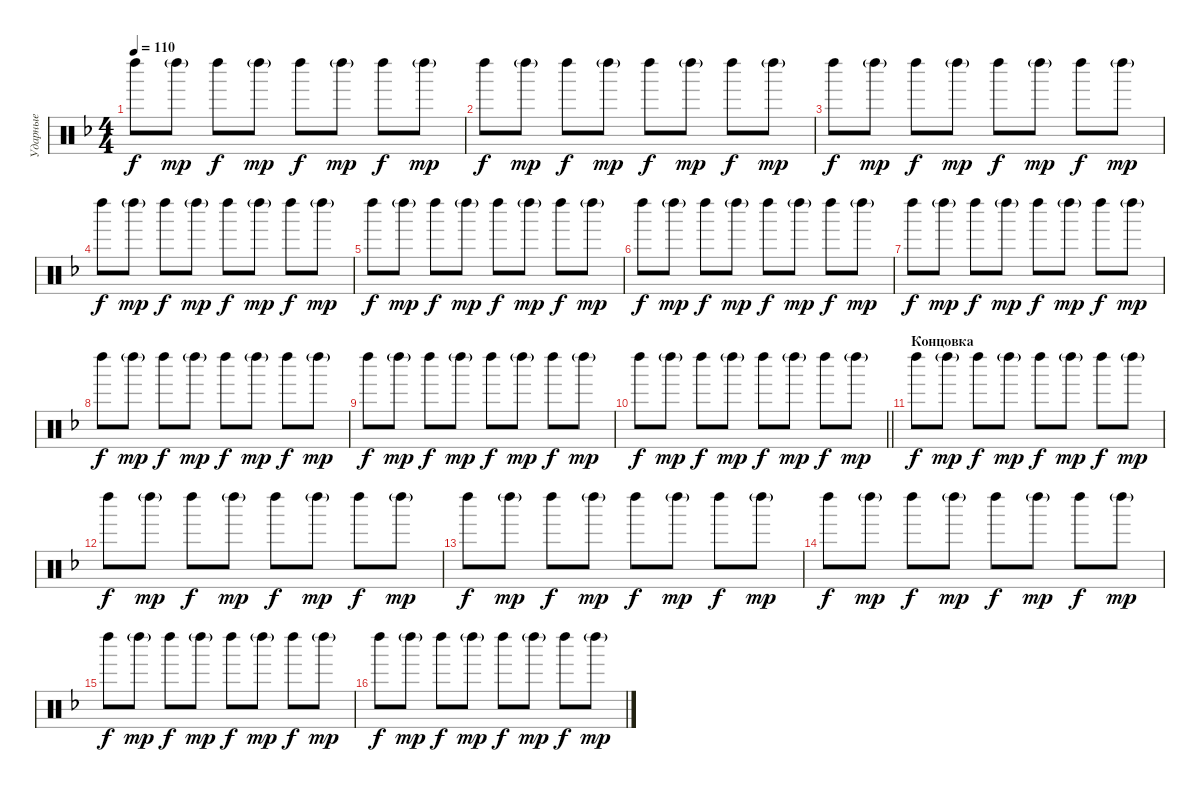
\track ("Ударные" "Ударные") {instrument percussion}
\staff {score}
\articulation defaults
\ts (4 4)
\tempo 110
\clef neutral
\ks dminor "Left Maraca (hit)".8{dy f} "Left Maraca (hit)"{g}.8{dy mp} "Left Maraca (hit)".8{dy f} "Left Maraca (hit)"{g}.8{dy mp} "Left Maraca (hit)".8{dy f} "Left Maraca (hit)"{g}.8{dy mp} "Left Maraca (hit)".8{dy f} "Left Maraca (hit)"{g}.8{dy mp}
|
"Left Maraca (hit)".8{dy f} "Left Maraca (hit)"{g}.8{dy mp} "Left Maraca (hit)".8{dy f} "Left Maraca (hit)"{g}.8{dy mp} "Left Maraca (hit)".8{dy f} "Left Maraca (hit)"{g}.8{dy mp} "Left Maraca (hit)".8{dy f} "Left Maraca (hit)"{g}.8{dy mp} |
"Left Maraca (hit)".8{dy f} "Left Maraca (hit)"{g}.8{dy mp} "Left Maraca (hit)".8{dy f} "Left Maraca (hit)"{g}.8{dy mp} "Left Maraca (hit)".8{dy f} "Left Maraca (hit)"{g}.8{dy mp} "Left Maraca (hit)".8{dy f} "Left Maraca (hit)"{g}.8{dy mp} |
"Left Maraca (hit)".8{dy f} "Left Maraca (hit)"{g}.8{dy mp} "Left Maraca (hit)".8{dy f} "Left Maraca (hit)"{g}.8{dy mp} "Left Maraca (hit)".8{dy f} "Left Maraca (hit)"{g}.8{dy mp} "Left Maraca (hit)".8{dy f} "Left Maraca (hit)"{g}.8{dy mp} |
"Left Maraca (hit)".8{dy f} "Left Maraca (hit)"{g}.8{dy mp} "Left Maraca (hit)".8{dy f} "Left Maraca (hit)"{g}.8{dy mp} "Left Maraca (hit)".8{dy f} "Left Maraca (hit)"{g}.8{dy mp} "Left Maraca (hit)".8{dy f} "Left Maraca (hit)"{g}.8{dy mp} |
"Left Maraca (hit)".8{dy f} "Left Maraca (hit)"{g}.8{dy mp} "Left Maraca (hit)".8{dy f} "Left Maraca (hit)"{g}.8{dy mp} "Left Maraca (hit)".8{dy f} "Left Maraca (hit)"{g}.8{dy mp} "Left Maraca (hit)".8{dy f} "Left Maraca (hit)"{g}.8{dy mp} |
"Left Maraca (hit)".8{dy f} "Left Maraca (hit)"{g}.8{dy mp} "Left Maraca (hit)".8{dy f} "Left Maraca (hit)"{g}.8{dy mp} "Left Maraca (hit)".8{dy f} "Left Maraca (hit)"{g}.8{dy mp} "Left Maraca (hit)".8{dy f} "Left Maraca (hit)"{g}.8{dy mp} |
"Left Maraca (hit)".8{dy f} "Left Maraca (hit)"{g}.8{dy mp} "Left Maraca (hit)".8{dy f} "Left Maraca (hit)"{g}.8{dy mp} "Left Maraca (hit)".8{dy f} "Left Maraca (hit)"{g}.8{dy mp} "Left Maraca (hit)".8{dy f} "Left Maraca (hit)"{g}.8{dy mp} |
"Left Maraca (hit)".8{dy f} "Left Maraca (hit)"{g}.8{dy mp} "Left Maraca (hit)".8{dy f} "Left Maraca (hit)"{g}.8{dy mp} "Left Maraca (hit)".8{dy f} "Left Maraca (hit)"{g}.8{dy mp} "Left Maraca (hit)".8{dy f} "Left Maraca (hit)"{g}.8{dy mp} |
\barLineRight lightlight "Left Maraca (hit)".8{dy f} "Left Maraca (hit)"{g}.8{dy mp} "Left Maraca (hit)".8{dy f} "Left Maraca (hit)"{g}.8{dy mp} "Left Maraca (hit)".8{dy f} "Left Maraca (hit)"{g}.8{dy mp} "Left Maraca (hit)".8{dy f} "Left Maraca (hit)"{g}.8{dy mp}
|
\section ("" "Концовка")
"Left Maraca (hit)".8{dy f} "Left Maraca (hit)"{g}.8{dy mp} "Left Maraca (hit)".8{dy f} "Left Maraca (hit)"{g}.8{dy mp} "Left Maraca (hit)".8{dy f} "Left Maraca (hit)"{g}.8{dy mp} "Left Maraca (hit)".8{dy f} "Left Maraca (hit)"{g}.8{dy mp} |
"Left Maraca (hit)".8{dy f} "Left Maraca (hit)"{g}.8{dy mp} "Left Maraca (hit)".8{dy f} "Left Maraca (hit)"{g}.8{dy mp} "Left Maraca (hit)".8{dy f} "Left Maraca (hit)"{g}.8{dy mp} "Left Maraca (hit)".8{dy f} "Left Maraca (hit)"{g}.8{dy mp} |
"Left Maraca (hit)".8{dy f} "Left Maraca (hit)"{g}.8{dy mp} "Left Maraca (hit)".8{dy f} "Left Maraca (hit)"{g}.8{dy mp} "Left Maraca (hit)".8{dy f} "Left Maraca (hit)"{g}.8{dy mp} "Left Maraca (hit)".8{dy f} "Left Maraca (hit)"{g}.8{dy mp} |
"Left Maraca (hit)".8{dy f} "Left Maraca (hit)"{g}.8{dy mp} "Left Maraca (hit)".8{dy f} "Left Maraca (hit)"{g}.8{dy mp} "Left Maraca (hit)".8{dy f} "Left Maraca (hit)"{g}.8{dy mp} "Left Maraca (hit)".8{dy f} "Left Maraca (hit)"{g}.8{dy mp} |
"Left Maraca (hit)".8{dy f} "Left Maraca (hit)"{g}.8{dy mp} "Left Maraca (hit)".8{dy f} "Left Maraca (hit)"{g}.8{dy mp} "Left Maraca (hit)".8{dy f} "Left Maraca (hit)"{g}.8{dy mp} "Left Maraca (hit)".8{dy f} "Left Maraca (hit)"{g}.8{dy mp} |
"Left Maraca (hit)".8{dy f} "Left Maraca (hit)"{g}.8{dy mp} "Left Maraca (hit)".8{dy f} "Left Maraca (hit)"{g}.8{dy mp} "Left Maraca (hit)".8{dy f} "Left Maraca (hit)"{g}.8{dy mp} "Left Maraca (hit)".8{dy f} "Left Maraca (hit)"{g}.8{dy mp}
